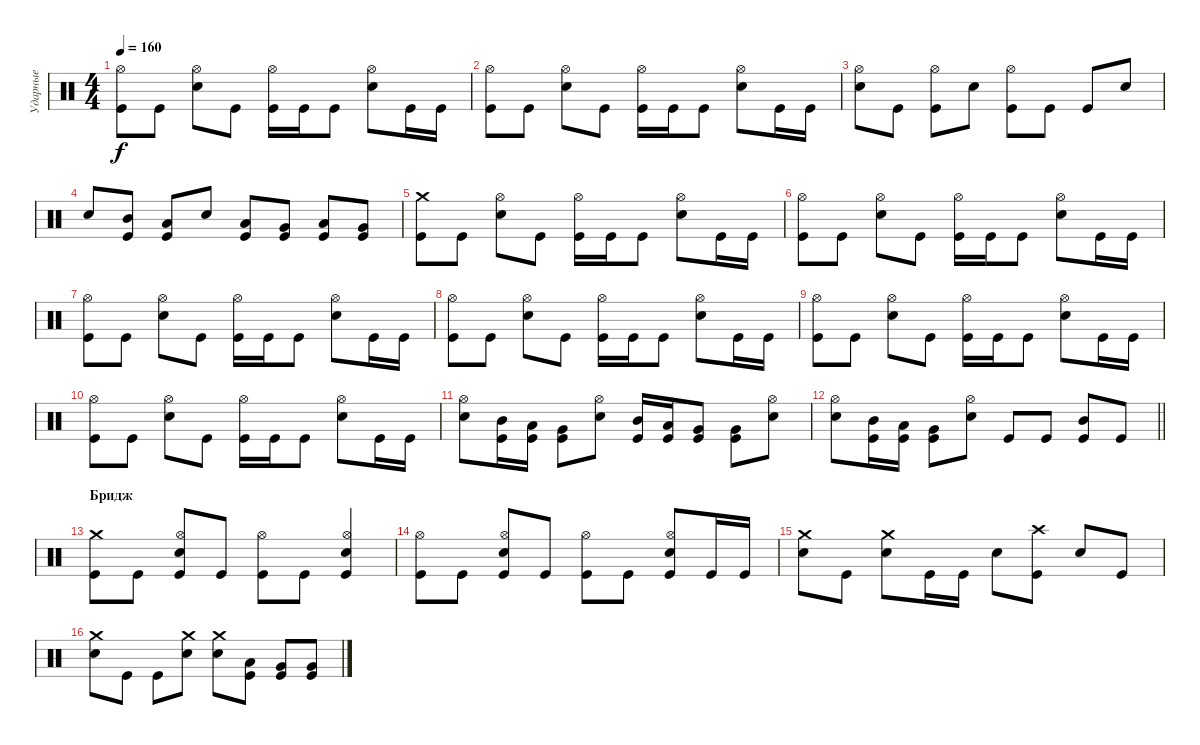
\track ("Ударные" "Ударные") {instrument percussion}
\staff {score}
\articulation defaults
\ts (4 4)
\tempo 160
\clef neutral
\ks c
("Kick (hit)" "Hi-Hat (open)").8{dy f} "Kick (hit)".8 ("Snare (hit) 2" "Hi-Hat (open)").8 "Kick (hit)".8 ("Kick (hit)" "Hi-Hat (open)").16 "Kick (hit)".16 "Kick (hit)".8 ("Snare (hit) 2" "Hi-Hat (open)").8 "Kick (hit)".16 "Kick (hit)".16 |
("Kick (hit)" "Hi-Hat (open)").8 "Kick (hit)".8 ("Snare (hit) 2" "Hi-Hat (open)").8 "Kick (hit)".8 ("Kick (hit)" "Hi-Hat (open)").16 "Kick (hit)".16 "Kick (hit)".8 ("Snare (hit) 2" "Hi-Hat (open)").8 "Kick (hit)".16 "Kick (hit)".16 |
("Snare (hit) 2" "Hi-Hat (open)").8 "Kick (hit)".8 ("Kick (hit)" "Hi-Hat (open)").8 "Snare (hit) 2".8 ("Kick (hit)" "Hi-Hat (open)").8 "Kick (hit)".8 "Kick (hit)".8 "Snare (hit) 2".8 |
"Snare (hit) 2".8 ("Kick (hit)" "Mid Tom (hit)").8 ("Kick (hit)" "Low Tom (hit)").8 "Snare (hit) 2".8 ("Kick (hit)" "Low Tom (hit)").8 ("Kick (hit)" "Very Low Tom (hit)").8 ("Kick (hit)" "Low Tom (hit)").8 ("Kick (hit)" "Very Low Tom (hit)").8 |
("Kick (hit)" "Crash medium (hit)").8 "Kick (hit)".8 ("Snare (hit) 2" "Hi-Hat (open)").8 "Kick (hit)".8 ("Kick (hit)" "Hi-Hat (open)").16 "Kick (hit)".16 "Kick (hit)".8 ("Snare (hit) 2" "Hi-Hat (open)").8 "Kick (hit)".16 "Kick (hit)".16 |
("Kick (hit)" "Hi-Hat (open)").8 "Kick (hit)".8 ("Snare (hit) 2" "Hi-Hat (open)").8 "Kick (hit)".8 ("Kick (hit)" "Hi-Hat (open)").16 "Kick (hit)".16 "Kick (hit)".8 ("Snare (hit) 2" "Hi-Hat (open)").8 "Kick (hit)".16 "Kick (hit)".16 |
("Kick (hit)" "Hi-Hat (open)").8 "Kick (hit)".8 ("Snare (hit) 2" "Hi-Hat (open)").8 "Kick (hit)".8 ("Kick (hit)" "Hi-Hat (open)").16 "Kick (hit)".16 "Kick (hit)".8 ("Snare (hit) 2" "Hi-Hat (open)").8 "Kick (hit)".16 "Kick (hit)".16 |
("Kick (hit)" "Hi-Hat (open)").8 "Kick (hit)".8 ("Snare (hit) 2" "Hi-Hat (open)").8 "Kick (hit)".8 ("Kick (hit)" "Hi-Hat (open)").16 "Kick (hit)".16 "Kick (hit)".8 ("Snare (hit) 2" "Hi-Hat (open)").8 "Kick (hit)".16 "Kick (hit)".16 |
("Kick (hit)" "Hi-Hat (open)").8 "Kick (hit)".8 ("Snare (hit) 2" "Hi-Hat (open)").8 "Kick (hit)".8 ("Kick (hit)" "Hi-Hat (open)").16 "Kick (hit)".16 "Kick (hit)".8 ("Snare (hit) 2" "Hi-Hat (open)").8 "Kick (hit)".16 "Kick (hit)".16 |
("Kick (hit)" "Hi-Hat (open)").8 "Kick (hit)".8 ("Snare (hit) 2" "Hi-Hat (open)").8 "Kick (hit)".8 ("Kick (hit)" "Hi-Hat (open)").16 "Kick (hit)".16 "Kick (hit)".8 ("Snare (hit) 2" "Hi-Hat (open)").8 "Kick (hit)".16 "Kick (hit)".16 |
("Snare (hit) 2" "Hi-Hat (open)").8 ("Kick (hit)" "Mid Tom (hit)").16 ("Kick (hit)" "Low Tom (hit)").16 ("Kick (hit)" "Very Low Tom (hit)").8 ("Snare (hit) 2" "Hi-Hat (open)").8 ("Kick (hit)" "Mid Tom (hit)").16 ("Kick (hit)" "Low Tom (hit)").16 ("Kick (hit)" "Very Low Tom (hit)").8 ("Kick (hit)" "Very Low Tom (hit)").8 ("Snare (hit) 2" "Hi-Hat (open)").8 |
\barLineRight lightlight
("Snare (hit) 2" "Hi-Hat (open)").8 ("Kick (hit)" "Mid Tom (hit)").16 ("Kick (hit)" "Low Tom (hit)").16 ("Kick (hit)" "Very Low Tom (hit)").8 ("Snare (hit) 2" "Hi-Hat (open)").8 "Kick (hit)".8 "Kick (hit)".8 ("Kick (hit)" "Mid Tom (hit)").8 "Kick (hit)".8 |
\section ("" "Бридж")
("Kick (hit)" "Crash medium (hit)").8 "Kick (hit)".8 ("Kick (hit)" "Snare (hit) 2" "Hi-Hat (open)").8 "Kick (hit)".8 ("Kick (hit)" "Hi-Hat (open)").8 "Kick (hit)".8 ("Kick (hit)" "Snare (hit) 2" "Hi-Hat (open)").4 |
("Kick (hit)" "Hi-Hat (open)").8 "Kick (hit)".8 ("Kick (hit)" "Snare (hit) 2" "Hi-Hat (open)").8 "Kick (hit)".8 ("Kick (hit)" "Hi-Hat (open)").8 "Kick (hit)".8 ("Kick (hit)" "Snare (hit) 2" "Hi-Hat (open)").8 "Kick (hit)".16 "Kick (hit)".16 |
("Snare (hit) 2" "Crash medium (hit)").8 "Kick (hit)".8 ("Snare (hit) 2" "Crash medium (hit)").8 "Kick (hit)".16 "Kick (hit)".16 "Snare (hit) 2".8 ("Kick (hit)" "Crash high (hit)").8 "Snare (hit) 2".8 "Kick (hit)".8 |
("Snare (hit) 2" "Crash medium (hit)").8 "Kick (hit)".8 "Kick (hit)".8 ("Snare (hit) 2" "Crash medium (hit)").8 ("Snare (hit) 2" "Crash medium (hit)").8 ("Kick (hit)" "Low Tom (hit)").8 ("Kick (hit)" "Very Low Tom (hit)").8 ("Kick (hit)" "Very Low Tom (hit)").8
